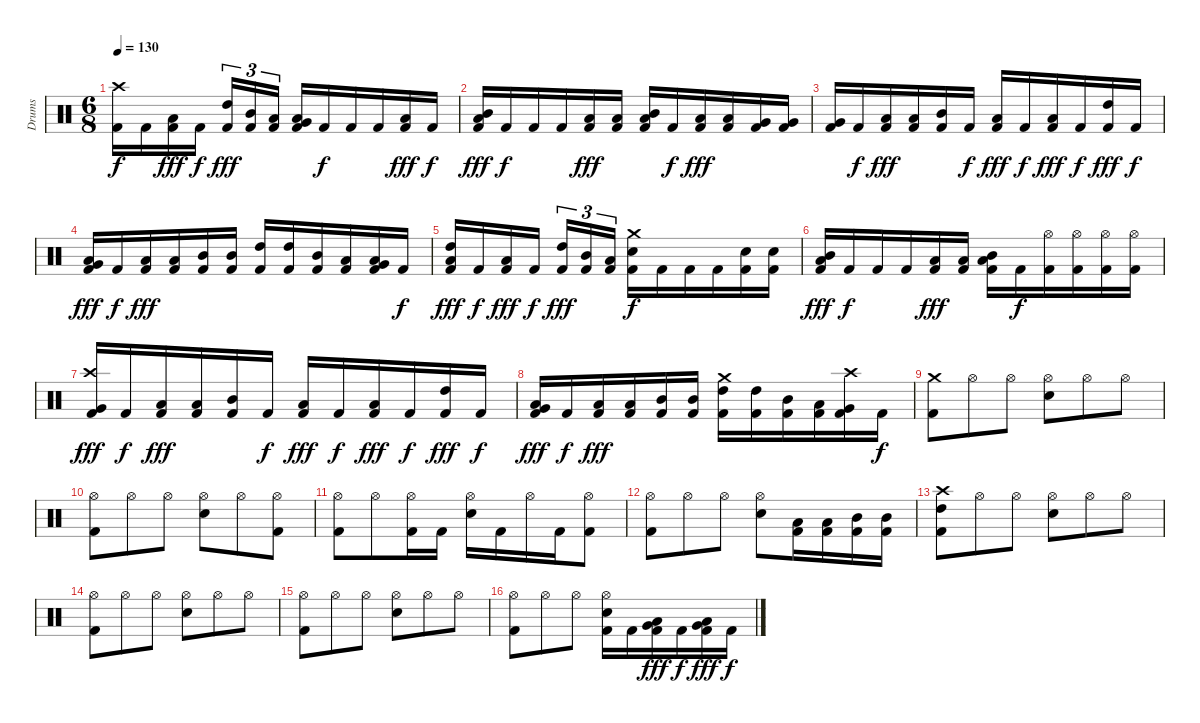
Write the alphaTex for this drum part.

\track ("Drums" "Drums") {instrument percussion}
\staff {score}
\articulation defaults
\ts (6 8)
\tempo 130
\clef neutral
\ks c
("Kick (hit) 2" "Crash high (hit)").16{dy f} "Kick (hit) 2".16 ("Kick (hit) 2" "Low Tom (hit)").16{dy fff} "Kick (hit) 2".16{dy f} ("Kick (hit) 2" "High Tom (hit)").16{tu (3 2) dy fff} ("Kick (hit) 2" "Mid Tom (hit)").16{tu (3 2)} ("Kick (hit) 2" "Low Tom (hit)").16{tu (3 2)} ("Kick (hit) 2" "Very Low Tom (hit)" "Low Tom (hit)").16 "Kick (hit) 2".16{dy f} "Kick (hit) 2".16 "Kick (hit) 2".16 ("Kick (hit) 2" "Low Tom (hit)").16{dy fff} "Kick (hit) 2".16{dy f} |
("Kick (hit) 2" "Low Floor Tom (hit)" "Mid Tom (hit)").16{dy fff} "Kick (hit) 2".16{dy f} "Kick (hit) 2".16 "Kick (hit) 2".16 ("Kick (hit) 2" "Low Tom (hit)").16{dy fff} ("Kick (hit) 2" "Low Tom (hit)").16 ("Kick (hit) 2" "Mid Tom (hit)" "Low Tom (hit)").16 "Kick (hit) 2".16{dy f} ("Kick (hit) 2" "Low Tom (hit)").16{dy fff} ("Kick (hit) 2" "Low Tom (hit)").16 ("Kick (hit) 2" "Very Low Tom (hit)").16 ("Kick (hit) 2" "Very Low Tom (hit)").16 |
("Kick (hit) 2" "Very Low Tom (hit)").16 "Kick (hit) 2".16{dy f} ("Kick (hit) 2" "Low Tom (hit)").16{dy fff} ("Kick (hit) 2" "Low Tom (hit)").16 ("Kick (hit) 2" "Mid Tom (hit)").16 "Kick (hit) 2".16{dy f} ("Kick (hit) 2" "Low Tom (hit)").16{dy fff} "Kick (hit) 2".16{dy f} ("Kick (hit) 2" "Low Tom (hit)").16{dy fff} "Kick (hit) 2".16{dy f} ("Kick (hit) 2" "High Tom (hit)").16{dy fff} "Kick (hit) 2".16{dy f} |
("Kick (hit) 2" "Very Low Tom (hit)" "Low Tom (hit)").16{dy fff} "Kick (hit) 2".16{dy f} ("Kick (hit) 2" "Low Tom (hit)").16{dy fff} ("Kick (hit) 2" "Low Tom (hit)").16 ("Kick (hit) 2" "Mid Tom (hit)").16 ("Kick (hit) 2" "Mid Tom (hit)").16 ("Kick (hit) 2" "High Tom (hit)").16 ("Kick (hit) 2" "High Tom (hit)").16 ("Kick (hit) 2" "Mid Tom (hit)").16 ("Kick (hit) 2" "Low Tom (hit)").16 ("Kick (hit) 2" "Very Low Tom (hit)" "Low Tom (hit)").16 "Kick (hit) 2".16{dy f} |
("Kick (hit) 2" "Low Tom (hit)" "High Tom (hit)").16{dy fff} "Kick (hit) 2".16{dy f} ("Kick (hit) 2" "Low Tom (hit)").16{dy fff} "Kick (hit) 2".16{dy f} ("Kick (hit) 2" "High Tom (hit)").16{tu (3 2) dy fff} ("Kick (hit) 2" "Mid Tom (hit)").16{tu (3 2)} ("Kick (hit) 2" "Low Tom (hit)").16{tu (3 2)} ("Kick (hit) 2" "Electric Snare (hit)" "Crash medium (hit)").16{dy f} "Kick (hit) 2".16 "Kick (hit) 2".16 "Kick (hit) 2".16 ("Kick (hit) 2" "Electric Snare (hit)").16 ("Kick (hit) 2" "Electric Snare (hit)").16 |
("Kick (hit) 2" "Low Floor Tom (hit)" "Mid Tom (hit)").16{dy fff} "Kick (hit) 2".16{dy f} "Kick (hit) 2".16 "Kick (hit) 2".16 ("Kick (hit) 2" "Low Tom (hit)").16{dy fff} ("Kick (hit) 2" "Low Tom (hit)").16 ("Kick (hit) 2" "Mid Tom (hit)" "Low Tom (hit)").16 "Kick (hit) 2".16{dy f} ("Kick (hit) 2" "Hi-Hat (open)").16 ("Kick (hit) 2" "Hi-Hat (open)").16 ("Kick (hit) 2" "Hi-Hat (open)").16 ("Kick (hit) 2" "Hi-Hat (open)").16 |
("Kick (hit) 2" "Very Low Tom (hit)" "Crash high (hit)").16{dy fff} "Kick (hit) 2".16{dy f} ("Kick (hit) 2" "Low Tom (hit)").16{dy fff} ("Kick (hit) 2" "Low Tom (hit)").16 ("Kick (hit) 2" "Mid Tom (hit)").16 "Kick (hit) 2".16{dy f} ("Kick (hit) 2" "Low Tom (hit)").16{dy fff} "Kick (hit) 2".16{dy f} ("Kick (hit) 2" "Low Tom (hit)").16{dy fff} "Kick (hit) 2".16{dy f} ("Kick (hit) 2" "High Tom (hit)").16{dy fff} "Kick (hit) 2".16{dy f} |
("Kick (hit) 2" "Very Low Tom (hit)" "Low Tom (hit)").16{dy fff} "Kick (hit) 2".16{dy f} ("Kick (hit) 2" "Low Tom (hit)").16{dy fff} ("Kick (hit) 2" "Low Tom (hit)").16 ("Kick (hit) 2" "Mid Tom (hit)").16 ("Kick (hit) 2" "Mid Tom (hit)").16 ("Kick (hit) 2" "High Tom (hit)" "Crash medium (hit)").16 ("Kick (hit) 2" "High Tom (hit)").16 ("Kick (hit) 2" "Mid Tom (hit)").16 ("Kick (hit) 2" "Low Tom (hit)").16 ("Kick (hit) 2" "Very Low Tom (hit)" "Crash high (hit)").16 "Kick (hit) 2".16{dy f} |
("Kick (hit) 2" "Crash medium (hit)").8 "Hi-Hat (open)".8 "Hi-Hat (open)".8 ("Electric Snare (hit)" "Hi-Hat (open)").8 "Hi-Hat (open)".8 "Hi-Hat (open)".8 |
("Kick (hit) 2" "Hi-Hat (open)").8 "Hi-Hat (open)".8 "Hi-Hat (open)".8 ("Electric Snare (hit)" "Hi-Hat (open)").8 "Hi-Hat (open)".8 ("Kick (hit) 2" "Hi-Hat (open)").8 |
("Kick (hit) 2" "Hi-Hat (open)").8 "Hi-Hat (open)".8 ("Kick (hit) 2" "Hi-Hat (open)").16 "Kick (hit) 2".16 ("Electric Snare (hit)" "Hi-Hat (open)").16 "Kick (hit) 2".16 "Hi-Hat (open)".16 "Kick (hit) 2".16 ("Kick (hit) 2" "Hi-Hat (open)").8 |
("Kick (hit) 2" "Hi-Hat (open)").8 "Hi-Hat (open)".8 "Hi-Hat (open)".8 ("Electric Snare (hit)" "Hi-Hat (open)").8 ("Kick (hit) 2" "Low Tom (hit)").16 ("Kick (hit) 2" "Low Tom (hit)").16 ("Kick (hit) 2" "Mid Tom (hit)").16 ("Kick (hit) 2" "Mid Tom (hit)").16 |
("Kick (hit) 2" "High Tom (hit)" "Crash high (hit)").8 "Hi-Hat (open)".8 "Hi-Hat (open)".8 ("Electric Snare (hit)" "Hi-Hat (open)").8 "Hi-Hat (open)".8 "Hi-Hat (open)".8 |
("Kick (hit) 2" "Hi-Hat (open)").8 "Hi-Hat (open)".8 "Hi-Hat (open)".8 ("Electric Snare (hit)" "Hi-Hat (open)").8 "Hi-Hat (open)".8 "Hi-Hat (open)".8 |
("Kick (hit) 2" "Hi-Hat (open)").8 "Hi-Hat (open)".8 "Hi-Hat (open)".8 ("Electric Snare (hit)" "Hi-Hat (open)").8 "Hi-Hat (open)".8 "Hi-Hat (open)".8 |
("Kick (hit) 2" "Hi-Hat (open)").8 "Hi-Hat (open)".8 "Hi-Hat (open)".8 ("Kick (hit) 2" "Electric Snare (hit)" "Hi-Hat (open)").16 "Kick (hit) 2".16 ("Kick (hit) 2" "Low Tom (hit)" "Very Low Tom (hit)").16{dy fff} "Kick (hit) 2".16{dy f} ("Kick (hit) 2" "Low Tom (hit)" "Very Low Tom (hit)").16{dy fff} "Kick (hit) 2".16{dy f}
